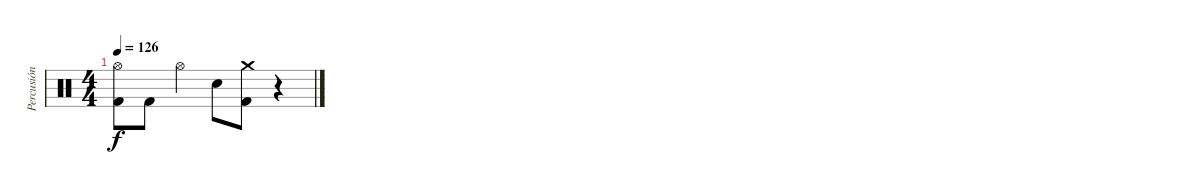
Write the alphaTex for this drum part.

\track ("Percusión" "Percusión") {instrument percussion}
\staff {score}
\articulation defaults
\ts (4 4)
\tempo 126
\clef neutral
\ks c
("Hi-Hat (open)" "Kick (hit) 2").8{dy f} "Kick (hit) 2".8 "Hi-Hat (open)".4 "Electric Snare (hit)".8 ("Crash medium (hit)" "Kick (hit) 2").8 r.4
